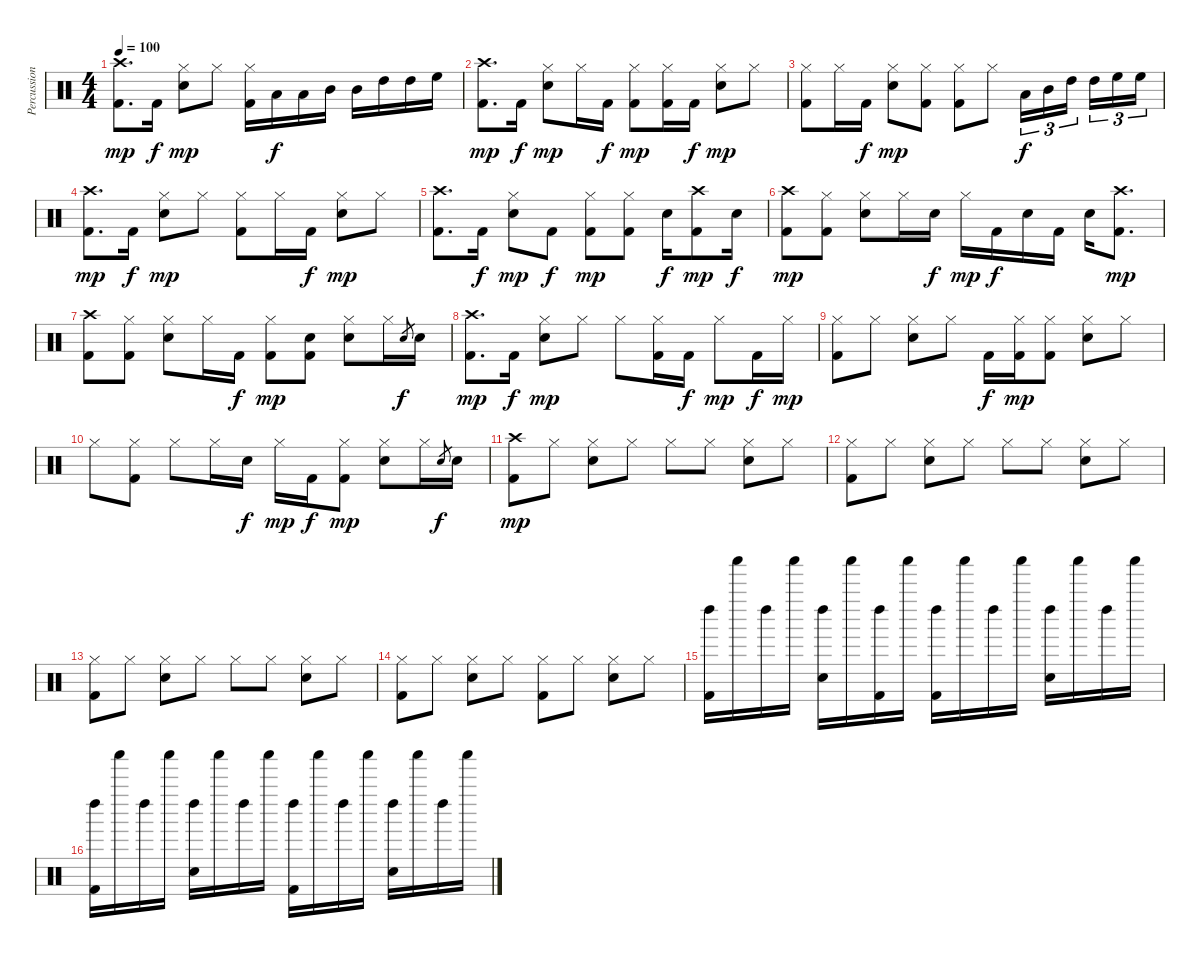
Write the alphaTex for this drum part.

\track ("Percussion" "Percussion") {instrument percussion}
\staff {score}
\articulation defaults
\ts (4 4)
\tempo 100
\clef neutral
\ks c
("Kick (hit) 2" "Crash high (hit)").8{d dy mp} "Kick (hit) 2".16{dy f} ("Snare (hit) 2" "Hi-Hat (closed)").8{dy mp} "Hi-Hat (closed)".8 ("Kick (hit) 2" "Hi-Hat (closed)").16 "Low Tom (hit)".16{dy f} "Low Tom (hit)".16 "Mid Tom (hit)".16 "Mid Tom (hit)".16 "High Tom (hit)".16 "High Tom (hit)".16 "High Floor Tom (hit)".16 |
("Kick (hit) 2" "Crash high (hit)").8{d dy mp} "Kick (hit) 2".16{dy f} ("Snare (hit) 2" "Hi-Hat (closed)").8{dy mp} "Hi-Hat (closed)".16 "Kick (hit) 2".16{dy f} ("Kick (hit) 2" "Hi-Hat (closed)").8{dy mp} ("Kick (hit) 2" "Hi-Hat (closed)").16 "Kick (hit) 2".16{dy f} ("Snare (hit) 2" "Hi-Hat (closed)").8{dy mp} "Hi-Hat (closed)".8 |
("Kick (hit) 2" "Hi-Hat (closed)").8 "Hi-Hat (closed)".16 "Kick (hit) 2".16{dy f} ("Snare (hit) 2" "Hi-Hat (closed)").8{dy mp} ("Kick (hit) 2" "Hi-Hat (closed)").8 ("Kick (hit) 2" "Hi-Hat (closed)").8 "Hi-Hat (closed)".8 "Low Tom (hit)".16{tu (3 2) dy f} "Mid Tom (hit)".16{tu (3 2)} "High Tom (hit)".16{tu (3 2)} "High Tom (hit)".16{tu (3 2)} "High Floor Tom (hit)".16{tu (3 2)} "High Floor Tom (hit)".16{tu (3 2)} |
("Kick (hit) 2" "Crash high (hit)").8{d dy mp} "Kick (hit) 2".16{dy f} ("Snare (hit) 2" "Hi-Hat (closed)").8{dy mp} "Hi-Hat (closed)".8 ("Kick (hit) 2" "Hi-Hat (closed)").8 "Hi-Hat (closed)".16 "Kick (hit) 2".16{dy f} ("Snare (hit) 2" "Hi-Hat (closed)").8{dy mp} "Hi-Hat (closed)".8 |
("Kick (hit) 2" "Crash high (hit)").8{d} "Kick (hit) 2".16{dy f} ("Snare (hit) 2" "Hi-Hat (closed)").8{dy mp} "Kick (hit) 2".8{dy f} ("Kick (hit) 2" "Hi-Hat (closed)").8{dy mp} ("Kick (hit) 2" "Hi-Hat (closed)").8 "Snare (hit) 2".16{dy f} ("Kick (hit) 2" "Crash high (hit)").8{dy mp} "Snare (hit) 2".16{dy f} |
("Kick (hit) 2" "Crash high (hit)").8{dy mp} ("Kick (hit) 2" "Hi-Hat (closed)").8 ("Snare (hit) 2" "Hi-Hat (closed)").8 "Hi-Hat (closed)".16 "Snare (hit) 2".16{dy f} "Hi-Hat (closed)".16{dy mp} "Kick (hit) 2".16{dy f} "Snare (hit) 2".16 "Kick (hit) 2".16 "Snare (hit) 2".16 ("Kick (hit) 2" "Crash high (hit)").8{d dy mp} |
("Kick (hit) 2" "Crash high (hit)").8 ("Kick (hit) 2" "Hi-Hat (closed)").8 ("Snare (hit) 2" "Hi-Hat (closed)").8 "Hi-Hat (closed)".16 "Kick (hit) 2".16{dy f} ("Kick (hit) 2" "Hi-Hat (closed)").8{dy mp} ("Kick (hit) 2" "Snare (hit)").8 ("Snare (hit) 2" "Hi-Hat (closed)").8 "Hi-Hat (closed)".16 "Snare (hit) 2".8{gr dy f} "Snare (hit) 2".16 |
("Kick (hit) 2" "Crash high (hit)").8{d dy mp} "Kick (hit) 2".16{dy f} ("Snare (hit) 2" "Hi-Hat (closed)").8{dy mp} "Hi-Hat (closed)".8 "Hi-Hat (closed)".8 ("Kick (hit) 2" "Hi-Hat (closed)").16 "Kick (hit) 2".16{dy f} "Hi-Hat (closed)".8{dy mp} "Kick (hit) 2".16{dy f} "Hi-Hat (closed)".16{dy mp} |
("Kick (hit) 2" "Hi-Hat (closed)").8 "Hi-Hat (closed)".8 ("Snare (hit) 2" "Hi-Hat (closed)").8 "Hi-Hat (closed)".8 "Kick (hit) 2".16{dy f} ("Kick (hit) 2" "Hi-Hat (closed)").16{dy mp} ("Kick (hit) 2" "Hi-Hat (closed)").8 ("Snare (hit) 2" "Hi-Hat (closed)").8 "Hi-Hat (closed)".8 |
"Hi-Hat (closed)".8 ("Kick (hit) 2" "Hi-Hat (closed)").8 "Hi-Hat (closed)".8 "Hi-Hat (closed)".16 "Snare (hit) 2".16{dy f} "Hi-Hat (closed)".16{dy mp} "Kick (hit) 2".16{dy f} ("Kick (hit) 2" "Hi-Hat (closed)").8{dy mp} ("Snare (hit) 2" "Hi-Hat (closed)").8 "Hi-Hat (closed)".16 "Snare (hit) 2".8{gr dy f} "Snare (hit) 2".16 |
("Kick (hit) 2" "Crash high (hit)").8{dy mp} "Hi-Hat (closed)".8 ("Snare (hit) 2" "Hi-Hat (closed)").8 "Hi-Hat (closed)".8 "Hi-Hat (closed)".8 "Hi-Hat (closed)".8 ("Snare (hit) 2" "Hi-Hat (closed)").8 "Hi-Hat (closed)".8 |
("Kick (hit) 2" "Hi-Hat (closed)").8 "Hi-Hat (closed)".8 ("Snare (hit) 2" "Hi-Hat (closed)").8 "Hi-Hat (closed)".8 "Hi-Hat (closed)".8 "Hi-Hat (closed)".8 ("Snare (hit) 2" "Hi-Hat (closed)").8 "Hi-Hat (closed)".8 |
("Kick (hit) 2" "Hi-Hat (closed)").8 "Hi-Hat (closed)".8 ("Snare (hit) 2" "Hi-Hat (closed)").8 "Hi-Hat (closed)".8 "Hi-Hat (closed)".8 "Hi-Hat (closed)".8 ("Snare (hit) 2" "Hi-Hat (closed)").8 "Hi-Hat (closed)".8 |
("Kick (hit) 2" "Hi-Hat (closed)").8{volume 10} "Hi-Hat (closed)".8 ("Snare (hit) 2" "Hi-Hat (closed)").8 "Hi-Hat (closed)".8 ("Kick (hit) 2" "Hi-Hat (closed)").8 "Hi-Hat (closed)".8 ("Snare (hit) 2" "Hi-Hat (closed)").8 "Hi-Hat (closed)".8 |
("Kick (hit) 2" "Left Maraca (hit)").16 "Shaker (hit)".16 "Left Maraca (hit)".16 "Shaker (hit)".16 ("Snare (hit) 2" "Left Maraca (hit)").16 "Shaker (hit)".16 ("Kick (hit) 2" "Left Maraca (hit)").16 "Shaker (hit)".16 ("Kick (hit) 2" "Left Maraca (hit)").16 "Shaker (hit)".16 "Left Maraca (hit)".16 "Shaker (hit)".16 ("Snare (hit) 2" "Left Maraca (hit)").16 "Shaker (hit)".16 "Left Maraca (hit)".16 "Shaker (hit)".16 |
("Kick (hit) 2" "Left Maraca (hit)").16 "Shaker (hit)".16 "Left Maraca (hit)".16 "Shaker (hit)".16 ("Snare (hit) 2" "Left Maraca (hit)").16 "Shaker (hit)".16 "Left Maraca (hit)".16 "Shaker (hit)".16 ("Kick (hit) 2" "Left Maraca (hit)").16 "Shaker (hit)".16 "Left Maraca (hit)".16 "Shaker (hit)".16 ("Snare (hit) 2" "Left Maraca (hit)").16 "Shaker (hit)".16 "Left Maraca (hit)".16 "Shaker (hit)".16
